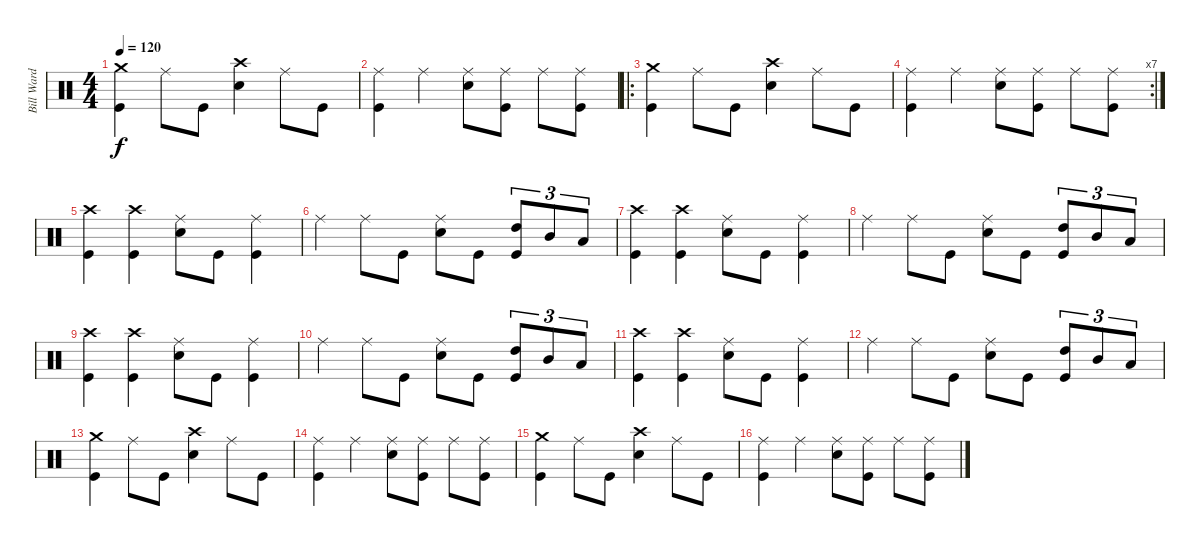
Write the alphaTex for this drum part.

\track ("Bill Ward" "Bill Ward") {instrument percussion}
\staff {score}
\articulation defaults
\ts (4 4)
\tempo 120
\clef neutral
\ks c
("Crash medium (hit)" "Kick (hit)").4{dy f} "Ride (middle)".8 "Kick (hit)".8 ("Crash high (hit)" "Electric Snare (hit)").4 "Ride (middle)".8 "Kick (hit)".8 |
("Ride (middle)" "Kick (hit)").4 "Ride (middle)".4 ("Ride (middle)" "Electric Snare (hit)").8 ("Ride (middle)" "Kick (hit)").8 "Ride (middle)".8 ("Ride (middle)" "Kick (hit)").8 |
\ro
("Crash medium (hit)" "Kick (hit)").4 "Ride (middle)".8 "Kick (hit)".8 ("Crash high (hit)" "Electric Snare (hit)").4 "Ride (middle)".8 "Kick (hit)".8 |
\rc 7
("Ride (middle)" "Kick (hit)").4 "Ride (middle)".4 ("Ride (middle)" "Electric Snare (hit)").8 ("Ride (middle)" "Kick (hit)").8 "Ride (middle)".8 ("Ride (middle)" "Kick (hit)").8 |
("Crash high (hit)" "Kick (hit)").4 ("Crash high (hit)" "Kick (hit)").4 ("Ride (middle)" "Electric Snare (hit)").8 "Kick (hit)".8 ("Ride (middle)" "Kick (hit)").4 |
"Ride (middle)".4 "Ride (middle)".8 "Kick (hit)".8 ("Ride (middle)" "Electric Snare (hit)").8 "Kick (hit)".8 ("High Tom (hit)" "Kick (hit)").8{tu (3 2)} "Mid Tom (hit)".8{tu (3 2)} "Low Tom (hit)".8{tu (3 2)} |
("Crash high (hit)" "Kick (hit)").4 ("Crash high (hit)" "Kick (hit)").4 ("Ride (middle)" "Electric Snare (hit)").8 "Kick (hit)".8 ("Ride (middle)" "Kick (hit)").4 |
"Ride (middle)".4 "Ride (middle)".8 "Kick (hit)".8 ("Ride (middle)" "Electric Snare (hit)").8 "Kick (hit)".8 ("High Tom (hit)" "Kick (hit)").8{tu (3 2)} "Mid Tom (hit)".8{tu (3 2)} "Low Tom (hit)".8{tu (3 2)} |
("Crash high (hit)" "Kick (hit)").4 ("Crash high (hit)" "Kick (hit)").4 ("Ride (middle)" "Electric Snare (hit)").8 "Kick (hit)".8 ("Ride (middle)" "Kick (hit)").4 |
"Ride (middle)".4 "Ride (middle)".8 "Kick (hit)".8 ("Ride (middle)" "Electric Snare (hit)").8 "Kick (hit)".8 ("High Tom (hit)" "Kick (hit)").8{tu (3 2)} "Mid Tom (hit)".8{tu (3 2)} "Low Tom (hit)".8{tu (3 2)} |
("Crash high (hit)" "Kick (hit)").4 ("Crash high (hit)" "Kick (hit)").4 ("Ride (middle)" "Electric Snare (hit)").8 "Kick (hit)".8 ("Ride (middle)" "Kick (hit)").4 |
"Ride (middle)".4 "Ride (middle)".8 "Kick (hit)".8 ("Ride (middle)" "Electric Snare (hit)").8 "Kick (hit)".8 ("High Tom (hit)" "Kick (hit)").8{tu (3 2)} "Mid Tom (hit)".8{tu (3 2)} "Low Tom (hit)".8{tu (3 2)} |
("Crash medium (hit)" "Kick (hit)").4 "Ride (middle)".8 "Kick (hit)".8 ("Crash high (hit)" "Electric Snare (hit)").4 "Ride (middle)".8 "Kick (hit)".8 |
("Ride (middle)" "Kick (hit)").4{volume 11} "Ride (middle)".4 ("Ride (middle)" "Electric Snare (hit)").8 ("Ride (middle)" "Kick (hit)").8 "Ride (middle)".8 ("Ride (middle)" "Kick (hit)").8 |
("Crash medium (hit)" "Kick (hit)").4{volume 10} "Ride (middle)".8 "Kick (hit)".8 ("Crash high (hit)" "Electric Snare (hit)").4 "Ride (middle)".8 "Kick (hit)".8 |
("Ride (middle)" "Kick (hit)").4{volume 9} "Ride (middle)".4 ("Ride (middle)" "Electric Snare (hit)").8 ("Ride (middle)" "Kick (hit)").8 "Ride (middle)".8 ("Ride (middle)" "Kick (hit)").8
